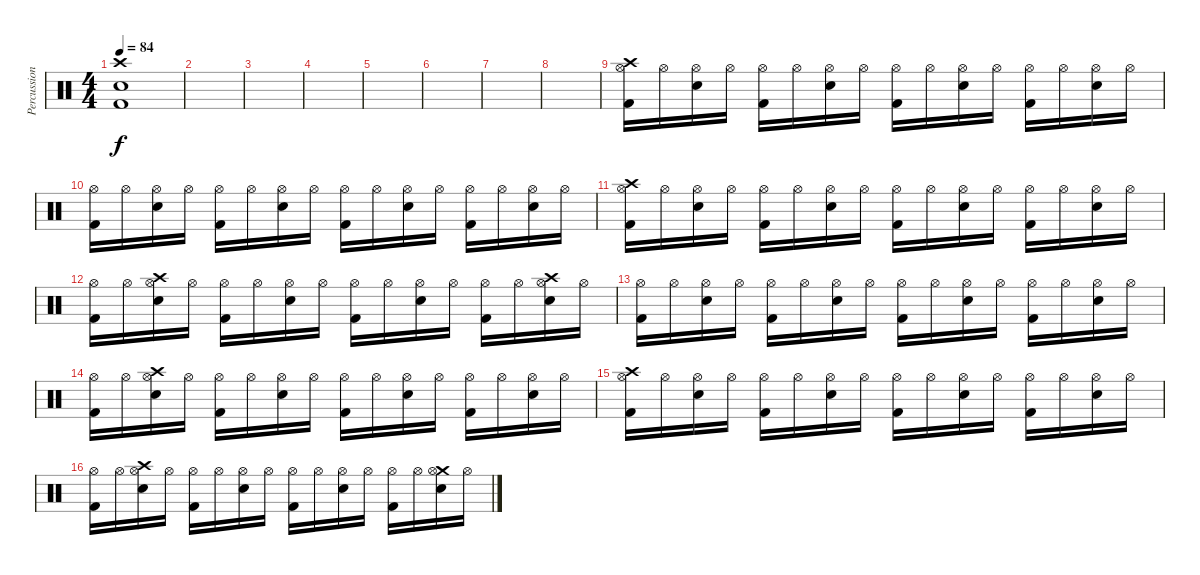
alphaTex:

\track ("Percussion" "Percussion") {instrument percussion}
\staff {score}
\articulation defaults
\ts (4 4)
\tempo 84
\clef neutral
\ks c
("Crash high (hit)" "Snare (hit) 2" "Kick (hit) 2").1{dy f} |
|
|
|
|
|
|
|
("Crash high (hit)" "Hi-Hat (open)" "Kick (hit) 2").16 "Hi-Hat (open)".16 ("Hi-Hat (open)" "Snare (hit) 2").16 "Hi-Hat (open)".16 ("Hi-Hat (open)" "Kick (hit) 2").16 "Hi-Hat (open)".16 ("Hi-Hat (open)" "Snare (hit) 2").16 "Hi-Hat (open)".16 ("Hi-Hat (open)" "Kick (hit) 2").16 "Hi-Hat (open)".16 ("Hi-Hat (open)" "Snare (hit) 2").16 "Hi-Hat (open)".16 ("Hi-Hat (open)" "Kick (hit) 2").16 "Hi-Hat (open)".16 ("Hi-Hat (open)" "Snare (hit) 2").16 "Hi-Hat (open)".16 |
("Hi-Hat (open)" "Kick (hit) 2").16 "Hi-Hat (open)".16 ("Hi-Hat (open)" "Snare (hit) 2").16 "Hi-Hat (open)".16 ("Hi-Hat (open)" "Kick (hit) 2").16 "Hi-Hat (open)".16 ("Hi-Hat (open)" "Snare (hit) 2").16 "Hi-Hat (open)".16 ("Hi-Hat (open)" "Kick (hit) 2").16 "Hi-Hat (open)".16 ("Hi-Hat (open)" "Snare (hit) 2").16 "Hi-Hat (open)".16 ("Hi-Hat (open)" "Kick (hit) 2").16 "Hi-Hat (open)".16 ("Hi-Hat (open)" "Snare (hit) 2").16 "Hi-Hat (open)".16 |
("Crash high (hit)" "Hi-Hat (open)" "Kick (hit) 2").16 "Hi-Hat (open)".16 ("Hi-Hat (open)" "Snare (hit) 2").16 "Hi-Hat (open)".16 ("Hi-Hat (open)" "Kick (hit) 2").16 "Hi-Hat (open)".16 ("Hi-Hat (open)" "Snare (hit) 2").16 "Hi-Hat (open)".16 ("Hi-Hat (open)" "Kick (hit) 2").16 "Hi-Hat (open)".16 ("Hi-Hat (open)" "Snare (hit) 2").16 "Hi-Hat (open)".16 ("Hi-Hat (open)" "Kick (hit) 2").16 "Hi-Hat (open)".16 ("Hi-Hat (open)" "Snare (hit) 2").16 "Hi-Hat (open)".16 |
("Hi-Hat (open)" "Kick (hit) 2").16 "Hi-Hat (open)".16 ("Crash high (hit)" "Hi-Hat (open)" "Snare (hit) 2").16 "Hi-Hat (open)".16 ("Hi-Hat (open)" "Kick (hit) 2").16 "Hi-Hat (open)".16 ("Hi-Hat (open)" "Snare (hit) 2").16 "Hi-Hat (open)".16 ("Hi-Hat (open)" "Kick (hit) 2").16 "Hi-Hat (open)".16 ("Hi-Hat (open)" "Snare (hit) 2").16 "Hi-Hat (open)".16 ("Hi-Hat (open)" "Kick (hit) 2").16 "Hi-Hat (open)".16 ("Crash high (hit)" "Hi-Hat (open)" "Snare (hit) 2").16 "Hi-Hat (open)".16 |
("Hi-Hat (open)" "Kick (hit) 2").16 "Hi-Hat (open)".16 ("Hi-Hat (open)" "Snare (hit) 2").16 "Hi-Hat (open)".16 ("Hi-Hat (open)" "Kick (hit) 2").16 "Hi-Hat (open)".16 ("Hi-Hat (open)" "Snare (hit) 2").16 "Hi-Hat (open)".16 ("Hi-Hat (open)" "Kick (hit) 2").16 "Hi-Hat (open)".16 ("Hi-Hat (open)" "Snare (hit) 2").16 "Hi-Hat (open)".16 ("Hi-Hat (open)" "Kick (hit) 2").16 "Hi-Hat (open)".16 ("Hi-Hat (open)" "Snare (hit) 2").16 "Hi-Hat (open)".16 |
("Hi-Hat (open)" "Kick (hit) 2").16 "Hi-Hat (open)".16 ("Crash high (hit)" "Hi-Hat (open)" "Snare (hit) 2").16 "Hi-Hat (open)".16 ("Hi-Hat (open)" "Kick (hit) 2").16 "Hi-Hat (open)".16 ("Hi-Hat (open)" "Snare (hit) 2").16 "Hi-Hat (open)".16 ("Hi-Hat (open)" "Kick (hit) 2").16 "Hi-Hat (open)".16 ("Hi-Hat (open)" "Snare (hit) 2").16 "Hi-Hat (open)".16 ("Hi-Hat (open)" "Kick (hit) 2").16 "Hi-Hat (open)".16 ("Hi-Hat (open)" "Snare (hit) 2").16 "Hi-Hat (open)".16 |
("Crash high (hit)" "Hi-Hat (open)" "Kick (hit) 2").16 "Hi-Hat (open)".16 ("Hi-Hat (open)" "Snare (hit) 2").16 "Hi-Hat (open)".16 ("Hi-Hat (open)" "Kick (hit) 2").16 "Hi-Hat (open)".16 ("Hi-Hat (open)" "Snare (hit) 2").16 "Hi-Hat (open)".16 ("Hi-Hat (open)" "Kick (hit) 2").16 "Hi-Hat (open)".16 ("Hi-Hat (open)" "Snare (hit) 2").16 "Hi-Hat (open)".16 ("Hi-Hat (open)" "Kick (hit) 2").16 "Hi-Hat (open)".16 ("Hi-Hat (open)" "Snare (hit) 2").16 "Hi-Hat (open)".16 |
("Hi-Hat (open)" "Kick (hit) 2").16 "Hi-Hat (open)".16 ("Crash high (hit)" "Hi-Hat (open)" "Snare (hit) 2").16 "Hi-Hat (open)".16 ("Hi-Hat (open)" "Kick (hit) 2").16 "Hi-Hat (open)".16 ("Hi-Hat (open)" "Snare (hit) 2").16 "Hi-Hat (open)".16 ("Hi-Hat (open)" "Kick (hit) 2").16 "Hi-Hat (open)".16 ("Hi-Hat (open)" "Snare (hit) 2").16 "Hi-Hat (open)".16 ("Hi-Hat (open)" "Kick (hit) 2").16 "Hi-Hat (open)".16 ("Crash medium (hit)" "Hi-Hat (open)" "Snare (hit) 2").16 "Hi-Hat (open)".16
